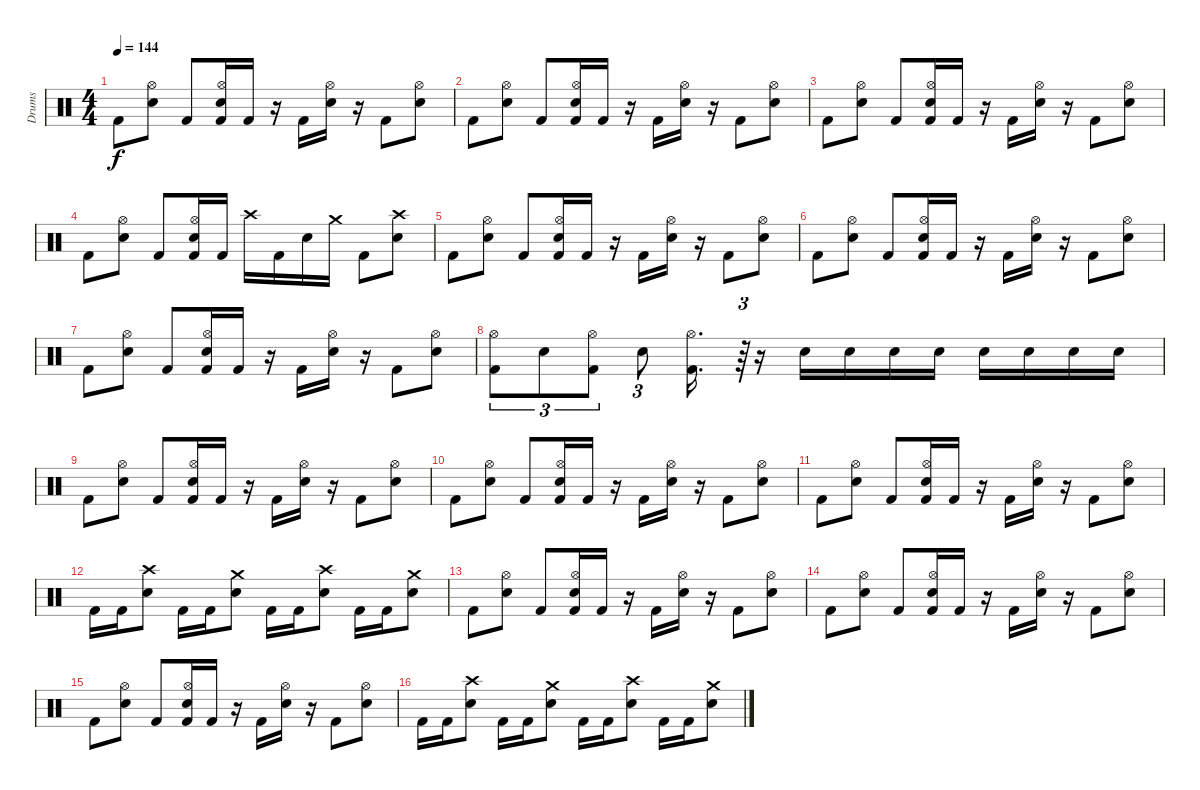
\track ("Drums" "Drums") {instrument percussion}
\staff {score}
\articulation defaults
\ts (4 4)
\tempo 144
\clef neutral
\ks c "Kick (hit) 2".8{dy f}
("Hi-Hat (open)" "Snare (hit) 2").8 "Kick (hit) 2".8 ("Hi-Hat (open)" "Snare (hit) 2" "Kick (hit) 2").16 "Kick (hit) 2".16 r.16 "Kick (hit) 2".16 ("Hi-Hat (open)" "Snare (hit) 2").16 r.16 "Kick (hit) 2".8 ("Hi-Hat (open)" "Snare (hit) 2").8 |
"Kick (hit) 2".8 ("Hi-Hat (open)" "Snare (hit) 2").8 "Kick (hit) 2".8 ("Hi-Hat (open)" "Snare (hit) 2" "Kick (hit) 2").16 "Kick (hit) 2".16 r.16 "Kick (hit) 2".16 ("Hi-Hat (open)" "Snare (hit) 2").16 r.16 "Kick (hit) 2".8 ("Hi-Hat (open)" "Snare (hit) 2").8 |
"Kick (hit) 2".8 ("Hi-Hat (open)" "Snare (hit) 2").8 "Kick (hit) 2".8 ("Hi-Hat (open)" "Snare (hit) 2" "Kick (hit) 2").16 "Kick (hit) 2".16 r.16 "Kick (hit) 2".16 ("Hi-Hat (open)" "Snare (hit) 2").16 r.16 "Kick (hit) 2".8 ("Hi-Hat (open)" "Snare (hit) 2").8 |
"Kick (hit) 2".8 ("Hi-Hat (open)" "Snare (hit) 2").8 "Kick (hit) 2".8 ("Hi-Hat (open)" "Snare (hit) 2" "Kick (hit) 2").16 "Kick (hit) 2".16 "Crash high (hit)".16 "Kick (hit) 2".16 "Snare (hit) 2".16 "Crash medium (hit)".16 "Kick (hit) 2".8 ("Crash high (hit)" "Snare (hit) 2").8 |
"Kick (hit) 2".8 ("Hi-Hat (open)" "Snare (hit) 2").8 "Kick (hit) 2".8 ("Hi-Hat (open)" "Snare (hit) 2" "Kick (hit) 2").16 "Kick (hit) 2".16 r.16 "Kick (hit) 2".16 ("Hi-Hat (open)" "Snare (hit) 2").16 r.16 "Kick (hit) 2".8 ("Hi-Hat (open)" "Snare (hit) 2").8 |
"Kick (hit) 2".8 ("Hi-Hat (open)" "Snare (hit) 2").8 "Kick (hit) 2".8 ("Hi-Hat (open)" "Snare (hit) 2" "Kick (hit) 2").16 "Kick (hit) 2".16 r.16 "Kick (hit) 2".16 ("Hi-Hat (open)" "Snare (hit) 2").16 r.16 "Kick (hit) 2".8 ("Hi-Hat (open)" "Snare (hit) 2").8 |
"Kick (hit) 2".8 ("Hi-Hat (open)" "Snare (hit) 2").8 "Kick (hit) 2".8 ("Hi-Hat (open)" "Snare (hit) 2" "Kick (hit) 2").16 "Kick (hit) 2".16 r.16 "Kick (hit) 2".16 ("Hi-Hat (open)" "Snare (hit) 2").16 r.16 "Kick (hit) 2".8 ("Hi-Hat (open)" "Snare (hit) 2").8 |
("Hi-Hat (open)" "Kick (hit) 2").8{tu (3 2)} "Snare (hit) 2".8{tu (3 2)} ("Hi-Hat (open)" "Kick (hit) 2").8{tu (3 2)} "Snare (hit) 2".8{tu (3 2)} ("Hi-Hat (open)" "Kick (hit) 2").16{d} r.64{tu (3 2)} r.16 "Snare (hit) 2".16 "Snare (hit) 2".16 "Snare (hit) 2".16 "Snare (hit) 2".16 "Snare (hit) 2".16 "Snare (hit) 2".16 "Snare (hit) 2".16 "Snare (hit) 2".16 |
"Kick (hit) 2".8 ("Hi-Hat (open)" "Snare (hit) 2").8 "Kick (hit) 2".8 ("Hi-Hat (open)" "Snare (hit) 2" "Kick (hit) 2").16 "Kick (hit) 2".16 r.16 "Kick (hit) 2".16 ("Hi-Hat (open)" "Snare (hit) 2").16 r.16 "Kick (hit) 2".8 ("Hi-Hat (open)" "Snare (hit) 2").8 |
"Kick (hit) 2".8 ("Hi-Hat (open)" "Snare (hit) 2").8 "Kick (hit) 2".8 ("Hi-Hat (open)" "Snare (hit) 2" "Kick (hit) 2").16 "Kick (hit) 2".16 r.16 "Kick (hit) 2".16 ("Hi-Hat (open)" "Snare (hit) 2").16 r.16 "Kick (hit) 2".8 ("Hi-Hat (open)" "Snare (hit) 2").8 |
"Kick (hit) 2".8 ("Hi-Hat (open)" "Snare (hit) 2").8 "Kick (hit) 2".8 ("Hi-Hat (open)" "Snare (hit) 2" "Kick (hit) 2").16 "Kick (hit) 2".16 r.16 "Kick (hit) 2".16 ("Hi-Hat (open)" "Snare (hit) 2").16 r.16 "Kick (hit) 2".8 ("Hi-Hat (open)" "Snare (hit) 2").8 |
"Kick (hit) 2".16 "Kick (hit) 2".16 ("Crash high (hit)" "Snare (hit) 2").8 "Kick (hit) 2".16 "Kick (hit) 2".16 ("Crash medium (hit)" "Snare (hit) 2").8 "Kick (hit) 2".16 "Kick (hit) 2".16 ("Crash high (hit)" "Snare (hit) 2").8 "Kick (hit) 2".16 "Kick (hit) 2".16 ("Crash medium (hit)" "Snare (hit) 2").8 |
"Kick (hit) 2".8 ("Hi-Hat (open)" "Snare (hit) 2").8 "Kick (hit) 2".8 ("Hi-Hat (open)" "Snare (hit) 2" "Kick (hit) 2").16 "Kick (hit) 2".16 r.16 "Kick (hit) 2".16 ("Hi-Hat (open)" "Snare (hit) 2").16 r.16 "Kick (hit) 2".8 ("Hi-Hat (open)" "Snare (hit) 2").8 |
"Kick (hit) 2".8 ("Hi-Hat (open)" "Snare (hit) 2").8 "Kick (hit) 2".8 ("Hi-Hat (open)" "Snare (hit) 2" "Kick (hit) 2").16 "Kick (hit) 2".16 r.16 "Kick (hit) 2".16 ("Hi-Hat (open)" "Snare (hit) 2").16 r.16 "Kick (hit) 2".8 ("Hi-Hat (open)" "Snare (hit) 2").8 |
"Kick (hit) 2".8 ("Hi-Hat (open)" "Snare (hit) 2").8 "Kick (hit) 2".8 ("Hi-Hat (open)" "Snare (hit) 2" "Kick (hit) 2").16 "Kick (hit) 2".16 r.16 "Kick (hit) 2".16 ("Hi-Hat (open)" "Snare (hit) 2").16 r.16 "Kick (hit) 2".8 ("Hi-Hat (open)" "Snare (hit) 2").8 |
"Kick (hit) 2".16 "Kick (hit) 2".16 ("Crash high (hit)" "Snare (hit) 2").8 "Kick (hit) 2".16 "Kick (hit) 2".16 ("Crash medium (hit)" "Snare (hit) 2").8 "Kick (hit) 2".16 "Kick (hit) 2".16 ("Crash high (hit)" "Snare (hit) 2").8 "Kick (hit) 2".16 "Kick (hit) 2".16 ("Crash medium (hit)" "Snare (hit) 2").8
